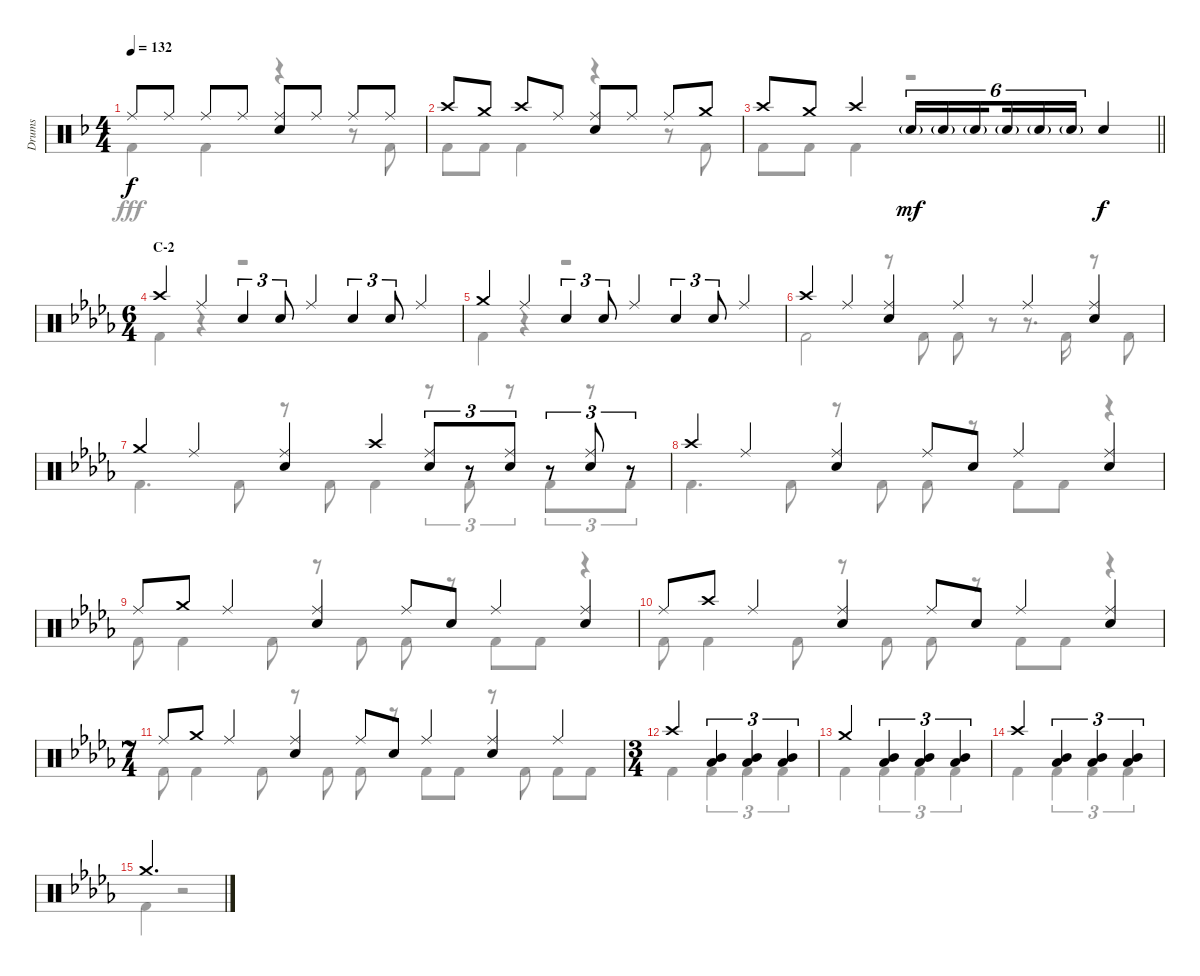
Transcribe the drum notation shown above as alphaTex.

\track ("Drums" "Drums") {instrument percussion}
\staff {score}
\articulation defaults
\voice
\ts (4 4)
\tempo 132
\clef neutral
\ks f "Ride (middle)".8{dy f} "Ride (middle)".8 "Ride (middle)".8 "Ride (middle)".8
("Ride (middle)" "Snare (hit) 2").8 "Ride (middle)".8 "Ride (middle)".8 "Ride (middle)".8 |
"Crash high (hit)".8 "Crash medium (hit)".8 "Crash high (hit)".8 "Ride (middle)".8 ("Ride (middle)" "Snare (hit) 2").8 "Ride (middle)".8 "Ride (middle)".8 "Crash medium (hit)".8 |
\barLineRight lightlight "Crash high (hit)".8 "Crash medium (hit)".8 "Crash high (hit)".4 "Snare (hit) 2"{g}.16{tu (6 4) dy mf} "Snare (hit) 2"{g}.16{tu (6 4)} "Snare (hit) 2"{g}.16{tu (6 4) beam splitsecondary} "Snare (hit) 2"{g}.16{tu (6 4)} "Snare (hit) 2"{g}.16{tu (6 4)} "Snare (hit) 2"{g}.16{tu (6 4)} "Snare (hit) 2".4{dy f}
|
\ts (6 4)
\section ("" "C-2")
\ks db "Crash high (hit)".4 "Ride (middle)".4 "Snare (hit) 2".4{tu (3 2)} "Snare (hit) 2".8{tu (3 2)} "Ride (middle)".4 "Snare (hit) 2".4{tu (3 2)} "Snare (hit) 2".8{tu (3 2)} "Ride (middle)".4
|
"Crash medium (hit)".4 "Ride (middle)".4 "Snare (hit) 2".4{tu (3 2)} "Snare (hit) 2".8{tu (3 2)} "Ride (middle)".4 "Snare (hit) 2".4{tu (3 2)} "Snare (hit) 2".8{tu (3 2)} "Ride (middle)".4 |
"Crash high (hit)".4 "Ride (middle)".4 ("Ride (middle)" "Snare (hit) 2").4 "Ride (middle)".4 "Ride (middle)".4 ("Ride (middle)" "Snare (hit) 2").4 |
"Crash medium (hit)".4 "Ride (middle)".4 ("Ride (middle)" "Snare (hit) 2").4 "Crash high (hit)".4 ("Ride (middle)" "Snare (hit) 2").8{tu (3 2)} r.8{tu (3 2)} ("Ride (middle)" "Snare (hit) 2").8{tu (3 2)} r.8{tu (3 2)} ("Ride (middle)" "Snare (hit) 2").8{tu (3 2)} r.8{tu (3 2)} |
"Crash high (hit)".4 "Ride (middle)".4 ("Ride (middle)" "Snare (hit) 2").4 "Ride (middle)".8 "Snare (hit) 2".8 "Ride (middle)".4 ("Ride (middle)" "Snare (hit) 2").4 |
"Ride (middle)".8 "Crash medium (hit)".8 "Ride (middle)".4 ("Ride (middle)" "Snare (hit) 2").4 "Ride (middle)".8 "Snare (hit) 2".8 "Ride (middle)".4 ("Ride (middle)" "Snare (hit) 2").4 |
"Ride (middle)".8 "Crash high (hit)".8 "Ride (middle)".4 ("Ride (middle)" "Snare (hit) 2").4 "Ride (middle)".8 "Snare (hit) 2".8 "Ride (middle)".4 ("Ride (middle)" "Snare (hit) 2").4 |
\ts (7 4)
"Ride (middle)".8 "Crash medium (hit)".8 "Ride (middle)".4 ("Ride (middle)" "Snare (hit) 2").4 "Ride (middle)".8 "Snare (hit) 2".8 "Ride (middle)".4 ("Ride (middle)" "Snare (hit) 2").4 "Ride (middle)".4 |
\ts (3 4)
"Crash high (hit)".4 ("Mid Tom (hit)" "Low Tom (hit)").4{tu (3 2)} ("Mid Tom (hit)" "Low Tom (hit)").4{tu (3 2)} ("Mid Tom (hit)" "Low Tom (hit)").4{tu (3 2)} |
"Crash medium (hit)".4 ("Mid Tom (hit)" "Low Tom (hit)").4{tu (3 2)} ("Mid Tom (hit)" "Low Tom (hit)").4{tu (3 2)} ("Mid Tom (hit)" "Low Tom (hit)").4{tu (3 2)} |
"Crash high (hit)".4 ("Mid Tom (hit)" "Low Tom (hit)").4{tu (3 2)} ("Mid Tom (hit)" "Low Tom (hit)").4{tu (3 2)} ("Mid Tom (hit)" "Low Tom (hit)").4{tu (3 2)} |
"Crash medium (hit)".2{d}
\voice
\clef neutral
\ottava regular
\simile none
\ks f "Kick (hit) 2".4{dy fff} "Kick (hit) 2".4
r.4 r.8 "Kick (hit) 2".8 |
"Kick (hit) 2".8 "Kick (hit) 2".8 "Kick (hit) 2".4 r.4 r.8 "Kick (hit) 2".8 |
\barLineRight lightlight "Kick (hit) 2".8 "Kick (hit) 2".8 "Kick (hit) 2".4
r.2 |
\ks db "Kick (hit) 2".4
r.4 r.1 |
"Kick (hit) 2".4 r.4 r.1 |
"Kick (hit) 2".2 r.8 "Kick (hit) 2".8 "Kick (hit) 2".8 r.8 r.8{d} "Kick (hit) 2".16 r.8 "Kick (hit) 2".8 |
"Kick (hit) 2".4{d} "Kick (hit) 2".8 r.8 "Kick (hit) 2".8 "Kick (hit) 2".4 r.8{tu (3 2)} "Kick (hit) 2".8{tu (3 2)} r.8{tu (3 2)} "Kick (hit) 2".8{tu (3 2)} r.8{tu (3 2)} "Kick (hit) 2".8{tu (3 2)} |
"Kick (hit) 2".4{d} "Kick (hit) 2".8 r.8 "Kick (hit) 2".8 "Kick (hit) 2".8 r.8 "Kick (hit) 2".8 "Kick (hit) 2".8 r.4 |
"Kick (hit) 2".8 "Kick (hit) 2".4 "Kick (hit) 2".8 r.8 "Kick (hit) 2".8 "Kick (hit) 2".8 r.8 "Kick (hit) 2".8 "Kick (hit) 2".8 r.4 |
"Kick (hit) 2".8 "Kick (hit) 2".4 "Kick (hit) 2".8 r.8 "Kick (hit) 2".8 "Kick (hit) 2".8 r.8 "Kick (hit) 2".8 "Kick (hit) 2".8 r.4 |
"Kick (hit) 2".8 "Kick (hit) 2".4 "Kick (hit) 2".8 r.8 "Kick (hit) 2".8 "Kick (hit) 2".8 r.8 "Kick (hit) 2".8 "Kick (hit) 2".8 r.8 "Kick (hit) 2".8 "Kick (hit) 2".8 "Kick (hit) 2".8 |
"Kick (hit) 2".4 "Kick (hit) 2".4{tu (3 2)} "Kick (hit) 2".4{tu (3 2)} "Kick (hit) 2".4{tu (3 2)} |
"Kick (hit) 2".4 "Kick (hit) 2".4{tu (3 2)} "Kick (hit) 2".4{tu (3 2)} "Kick (hit) 2".4{tu (3 2)} |
"Kick (hit) 2".4 "Kick (hit) 2".4{tu (3 2)} "Kick (hit) 2".4{tu (3 2)} "Kick (hit) 2".4{tu (3 2)} |
"Kick (hit) 2".4 r.2
